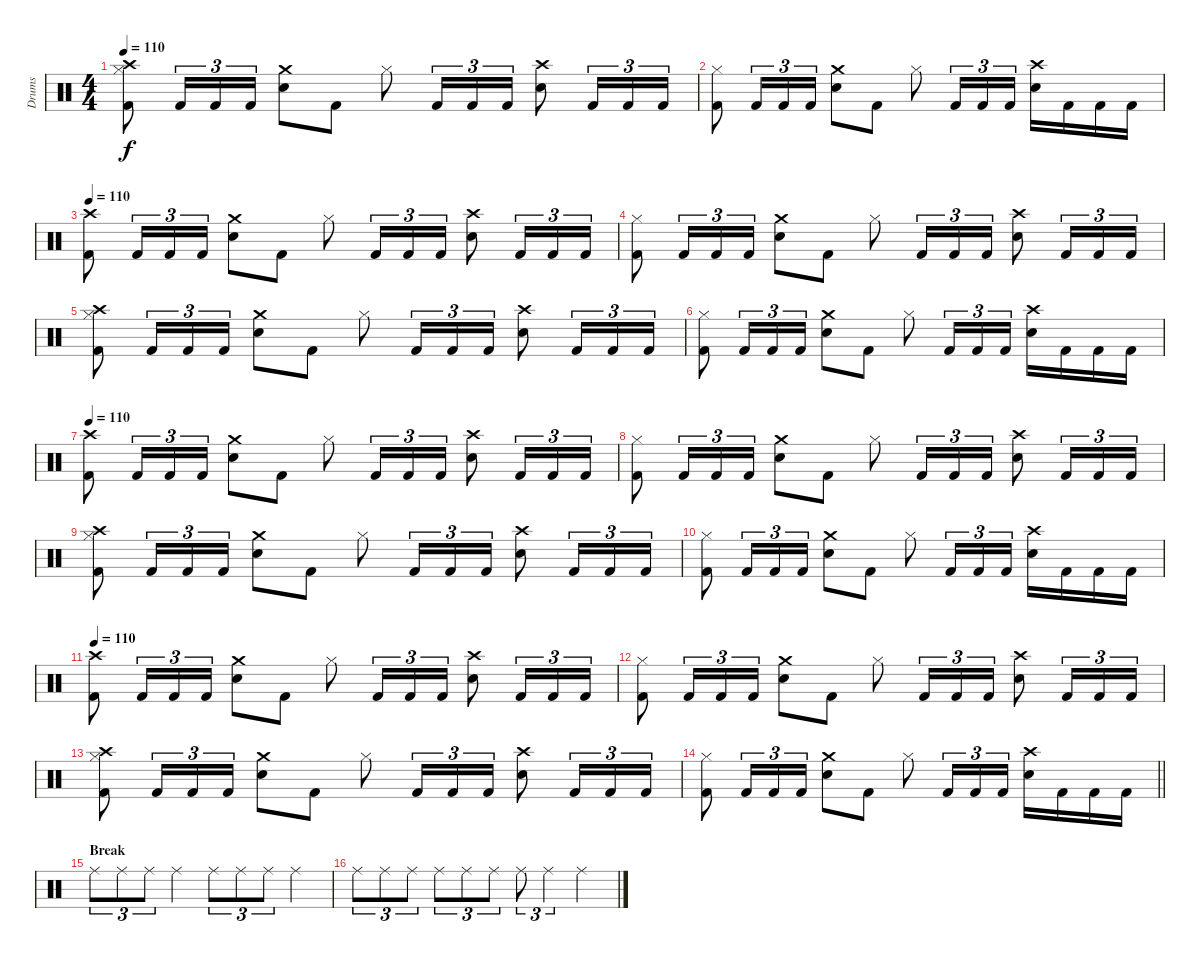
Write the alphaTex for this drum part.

\track ("Drums" "Drums") {instrument percussion}
\staff {score}
\articulation defaults
\ts (4 4)
\tempo 110
\clef neutral
\ks c
("Crash high (hit)" "Hi-Hat (closed)" "Kick (hit) 2").8{dy f} "Kick (hit) 2".16{tu (3 2)} "Kick (hit) 2".16{tu (3 2)} "Kick (hit) 2".16{tu (3 2)} ("Crash medium (hit)" "Electric Snare (hit)").8 "Kick (hit) 2".8 "Hi-Hat (closed)".8 "Kick (hit) 2".16{tu (3 2)} "Kick (hit) 2".16{tu (3 2)} "Kick (hit) 2".16{tu (3 2)} ("Crash high (hit)" "Electric Snare (hit)").8 "Kick (hit) 2".16{tu (3 2)} "Kick (hit) 2".16{tu (3 2)} "Kick (hit) 2".16{tu (3 2)} |
("Hi-Hat (closed)" "Kick (hit) 2").8 "Kick (hit) 2".16{tu (3 2)} "Kick (hit) 2".16{tu (3 2)} "Kick (hit) 2".16{tu (3 2)} ("Crash medium (hit)" "Electric Snare (hit)").8 "Kick (hit) 2".8 "Hi-Hat (closed)".8 "Kick (hit) 2".16{tu (3 2)} "Kick (hit) 2".16{tu (3 2)} "Kick (hit) 2".16{tu (3 2)} ("Crash high (hit)" "Electric Snare (hit)").16 "Kick (hit) 2".16 "Kick (hit) 2".16 "Kick (hit) 2".16 |
\tempo 110
("Crash high (hit)" "Kick (hit) 2").8 "Kick (hit) 2".16{tu (3 2)} "Kick (hit) 2".16{tu (3 2)} "Kick (hit) 2".16{tu (3 2)} ("Crash medium (hit)" "Electric Snare (hit)").8 "Kick (hit) 2".8 "Hi-Hat (closed)".8 "Kick (hit) 2".16{tu (3 2)} "Kick (hit) 2".16{tu (3 2)} "Kick (hit) 2".16{tu (3 2)} ("Crash high (hit)" "Electric Snare (hit)").8 "Kick (hit) 2".16{tu (3 2)} "Kick (hit) 2".16{tu (3 2)} "Kick (hit) 2".16{tu (3 2)} |
("Hi-Hat (closed)" "Kick (hit) 2").8 "Kick (hit) 2".16{tu (3 2)} "Kick (hit) 2".16{tu (3 2)} "Kick (hit) 2".16{tu (3 2)} ("Crash medium (hit)" "Electric Snare (hit)").8 "Kick (hit) 2".8 "Hi-Hat (closed)".8 "Kick (hit) 2".16{tu (3 2)} "Kick (hit) 2".16{tu (3 2)} "Kick (hit) 2".16{tu (3 2)} ("Crash high (hit)" "Electric Snare (hit)").8 "Kick (hit) 2".16{tu (3 2)} "Kick (hit) 2".16{tu (3 2)} "Kick (hit) 2".16{tu (3 2)} |
("Crash high (hit)" "Hi-Hat (closed)" "Kick (hit) 2").8 "Kick (hit) 2".16{tu (3 2)} "Kick (hit) 2".16{tu (3 2)} "Kick (hit) 2".16{tu (3 2)} ("Crash medium (hit)" "Electric Snare (hit)").8 "Kick (hit) 2".8 "Hi-Hat (closed)".8 "Kick (hit) 2".16{tu (3 2)} "Kick (hit) 2".16{tu (3 2)} "Kick (hit) 2".16{tu (3 2)} ("Crash high (hit)" "Electric Snare (hit)").8 "Kick (hit) 2".16{tu (3 2)} "Kick (hit) 2".16{tu (3 2)} "Kick (hit) 2".16{tu (3 2)} |
("Hi-Hat (closed)" "Kick (hit) 2").8 "Kick (hit) 2".16{tu (3 2)} "Kick (hit) 2".16{tu (3 2)} "Kick (hit) 2".16{tu (3 2)} ("Crash medium (hit)" "Electric Snare (hit)").8 "Kick (hit) 2".8 "Hi-Hat (closed)".8 "Kick (hit) 2".16{tu (3 2)} "Kick (hit) 2".16{tu (3 2)} "Kick (hit) 2".16{tu (3 2)} ("Crash high (hit)" "Electric Snare (hit)").16 "Kick (hit) 2".16 "Kick (hit) 2".16 "Kick (hit) 2".16 |
\tempo 110
("Crash high (hit)" "Kick (hit) 2").8 "Kick (hit) 2".16{tu (3 2)} "Kick (hit) 2".16{tu (3 2)} "Kick (hit) 2".16{tu (3 2)} ("Crash medium (hit)" "Electric Snare (hit)").8 "Kick (hit) 2".8 "Hi-Hat (closed)".8 "Kick (hit) 2".16{tu (3 2)} "Kick (hit) 2".16{tu (3 2)} "Kick (hit) 2".16{tu (3 2)} ("Crash high (hit)" "Electric Snare (hit)").8 "Kick (hit) 2".16{tu (3 2)} "Kick (hit) 2".16{tu (3 2)} "Kick (hit) 2".16{tu (3 2)} |
("Hi-Hat (closed)" "Kick (hit) 2").8 "Kick (hit) 2".16{tu (3 2)} "Kick (hit) 2".16{tu (3 2)} "Kick (hit) 2".16{tu (3 2)} ("Crash medium (hit)" "Electric Snare (hit)").8 "Kick (hit) 2".8 "Hi-Hat (closed)".8 "Kick (hit) 2".16{tu (3 2)} "Kick (hit) 2".16{tu (3 2)} "Kick (hit) 2".16{tu (3 2)} ("Crash high (hit)" "Electric Snare (hit)").8 "Kick (hit) 2".16{tu (3 2)} "Kick (hit) 2".16{tu (3 2)} "Kick (hit) 2".16{tu (3 2)} |
("Crash high (hit)" "Hi-Hat (closed)" "Kick (hit) 2").8 "Kick (hit) 2".16{tu (3 2)} "Kick (hit) 2".16{tu (3 2)} "Kick (hit) 2".16{tu (3 2)} ("Crash medium (hit)" "Electric Snare (hit)").8 "Kick (hit) 2".8 "Hi-Hat (closed)".8 "Kick (hit) 2".16{tu (3 2)} "Kick (hit) 2".16{tu (3 2)} "Kick (hit) 2".16{tu (3 2)} ("Crash high (hit)" "Electric Snare (hit)").8 "Kick (hit) 2".16{tu (3 2)} "Kick (hit) 2".16{tu (3 2)} "Kick (hit) 2".16{tu (3 2)} |
("Hi-Hat (closed)" "Kick (hit) 2").8 "Kick (hit) 2".16{tu (3 2)} "Kick (hit) 2".16{tu (3 2)} "Kick (hit) 2".16{tu (3 2)} ("Crash medium (hit)" "Electric Snare (hit)").8 "Kick (hit) 2".8 "Hi-Hat (closed)".8 "Kick (hit) 2".16{tu (3 2)} "Kick (hit) 2".16{tu (3 2)} "Kick (hit) 2".16{tu (3 2)} ("Crash high (hit)" "Electric Snare (hit)").16 "Kick (hit) 2".16 "Kick (hit) 2".16 "Kick (hit) 2".16 |
\tempo 110
("Crash high (hit)" "Kick (hit) 2").8 "Kick (hit) 2".16{tu (3 2)} "Kick (hit) 2".16{tu (3 2)} "Kick (hit) 2".16{tu (3 2)} ("Crash medium (hit)" "Electric Snare (hit)").8 "Kick (hit) 2".8 "Hi-Hat (closed)".8 "Kick (hit) 2".16{tu (3 2)} "Kick (hit) 2".16{tu (3 2)} "Kick (hit) 2".16{tu (3 2)} ("Crash high (hit)" "Electric Snare (hit)").8 "Kick (hit) 2".16{tu (3 2)} "Kick (hit) 2".16{tu (3 2)} "Kick (hit) 2".16{tu (3 2)} |
("Hi-Hat (closed)" "Kick (hit) 2").8 "Kick (hit) 2".16{tu (3 2)} "Kick (hit) 2".16{tu (3 2)} "Kick (hit) 2".16{tu (3 2)} ("Crash medium (hit)" "Electric Snare (hit)").8 "Kick (hit) 2".8 "Hi-Hat (closed)".8 "Kick (hit) 2".16{tu (3 2)} "Kick (hit) 2".16{tu (3 2)} "Kick (hit) 2".16{tu (3 2)} ("Crash high (hit)" "Electric Snare (hit)").8 "Kick (hit) 2".16{tu (3 2)} "Kick (hit) 2".16{tu (3 2)} "Kick (hit) 2".16{tu (3 2)} |
("Crash high (hit)" "Hi-Hat (closed)" "Kick (hit) 2").8 "Kick (hit) 2".16{tu (3 2)} "Kick (hit) 2".16{tu (3 2)} "Kick (hit) 2".16{tu (3 2)} ("Crash medium (hit)" "Electric Snare (hit)").8 "Kick (hit) 2".8 "Hi-Hat (closed)".8 "Kick (hit) 2".16{tu (3 2)} "Kick (hit) 2".16{tu (3 2)} "Kick (hit) 2".16{tu (3 2)} ("Crash high (hit)" "Electric Snare (hit)").8 "Kick (hit) 2".16{tu (3 2)} "Kick (hit) 2".16{tu (3 2)} "Kick (hit) 2".16{tu (3 2)} |
\barLineRight lightlight
("Hi-Hat (closed)" "Kick (hit) 2").8 "Kick (hit) 2".16{tu (3 2)} "Kick (hit) 2".16{tu (3 2)} "Kick (hit) 2".16{tu (3 2)} ("Crash medium (hit)" "Electric Snare (hit)").8 "Kick (hit) 2".8 "Hi-Hat (closed)".8 "Kick (hit) 2".16{tu (3 2)} "Kick (hit) 2".16{tu (3 2)} "Kick (hit) 2".16{tu (3 2)} ("Crash high (hit)" "Electric Snare (hit)").16 "Kick (hit) 2".16 "Kick (hit) 2".16 "Kick (hit) 2".16 |
\section ("" "Break")
"Ride (middle)".8{tu (3 2)} "Ride (middle)".8{tu (3 2)} "Ride (middle)".8{tu (3 2)} "Ride (middle)".4 "Ride (middle)".8{tu (3 2)} "Ride (middle)".8{tu (3 2)} "Ride (middle)".8{tu (3 2)} "Ride (middle)".4 |
"Ride (middle)".8{tu (3 2)} "Ride (middle)".8{tu (3 2)} "Ride (middle)".8{tu (3 2)} "Ride (middle)".8{tu (3 2)} "Ride (middle)".8{tu (3 2)} "Ride (middle)".8{tu (3 2)} "Ride (middle)".8{tu (3 2)} "Ride (middle)".4{tu (3 2)} "Ride (middle)".4
